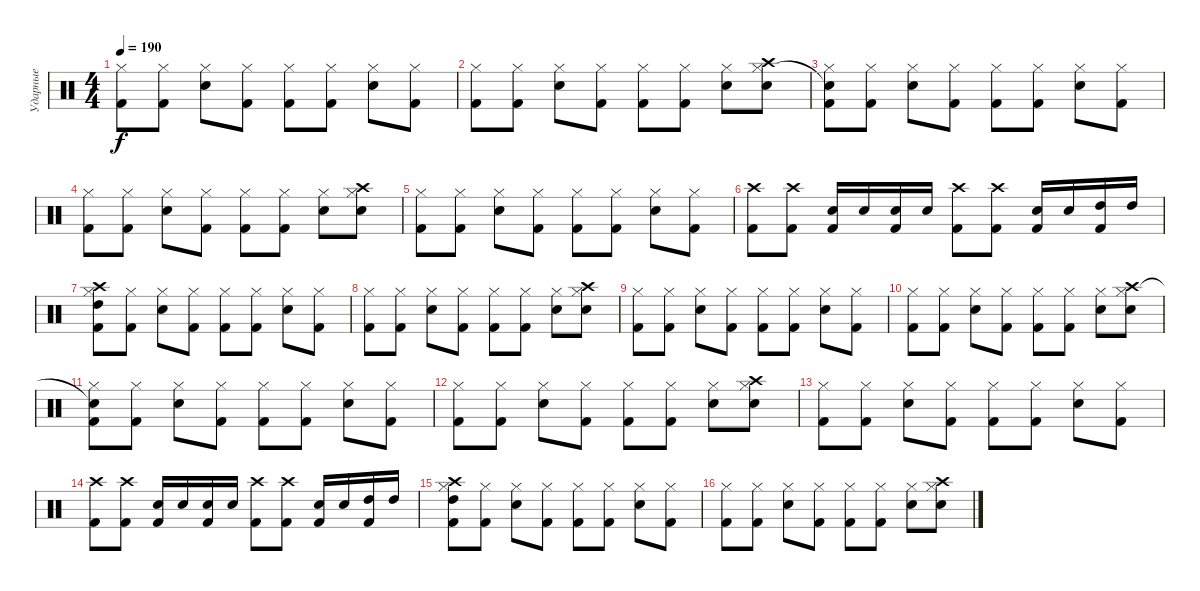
\track ("Ударные" "Ударные") {instrument percussion}
\staff {score}
\articulation defaults
\ts (4 4)
\tempo 190
\clef neutral
\ks c
("Hi-Hat (closed)" "Kick (hit) 2").8{dy f} ("Hi-Hat (closed)" "Kick (hit) 2").8 ("Hi-Hat (closed)" "Electric Snare (hit)").8 ("Hi-Hat (closed)" "Kick (hit) 2").8 ("Hi-Hat (closed)" "Kick (hit) 2").8 ("Hi-Hat (closed)" "Kick (hit) 2").8 ("Hi-Hat (closed)" "Electric Snare (hit)").8 ("Hi-Hat (closed)" "Kick (hit) 2").8 |
("Hi-Hat (closed)" "Kick (hit) 2").8 ("Hi-Hat (closed)" "Kick (hit) 2").8 ("Hi-Hat (closed)" "Electric Snare (hit)").8 ("Hi-Hat (closed)" "Kick (hit) 2").8 ("Hi-Hat (closed)" "Kick (hit) 2").8 ("Hi-Hat (closed)" "Kick (hit) 2").8 ("Hi-Hat (closed)" "Electric Snare (hit)").8 ("Hi-Hat (closed)" "Crash high (hit)" "Electric Snare (hit)").8 |
("Snare (hit)"{t} "Hi-Hat (closed)" "Kick (hit) 2").8 ("Hi-Hat (closed)" "Kick (hit) 2").8 ("Hi-Hat (closed)" "Electric Snare (hit)").8 ("Hi-Hat (closed)" "Kick (hit) 2").8 ("Hi-Hat (closed)" "Kick (hit) 2").8 ("Hi-Hat (closed)" "Kick (hit) 2").8 ("Hi-Hat (closed)" "Electric Snare (hit)").8 ("Hi-Hat (closed)" "Kick (hit) 2").8 |
("Hi-Hat (closed)" "Kick (hit) 2").8 ("Hi-Hat (closed)" "Kick (hit) 2").8 ("Hi-Hat (closed)" "Electric Snare (hit)").8 ("Hi-Hat (closed)" "Kick (hit) 2").8 ("Hi-Hat (closed)" "Kick (hit) 2").8 ("Hi-Hat (closed)" "Kick (hit) 2").8 ("Hi-Hat (closed)" "Electric Snare (hit)").8 ("Hi-Hat (closed)" "Crash high (hit)" "Electric Snare (hit)").8 |
("Hi-Hat (closed)" "Kick (hit) 2").8 ("Hi-Hat (closed)" "Kick (hit) 2").8 ("Hi-Hat (closed)" "Electric Snare (hit)").8 ("Hi-Hat (closed)" "Kick (hit) 2").8 ("Hi-Hat (closed)" "Kick (hit) 2").8 ("Hi-Hat (closed)" "Kick (hit) 2").8 ("Hi-Hat (closed)" "Electric Snare (hit)").8 ("Hi-Hat (closed)" "Kick (hit) 2").8 |
("Crash high (hit)" "Kick (hit) 2").8 ("Crash high (hit)" "Kick (hit) 2").8 ("Electric Snare (hit)" "Kick (hit) 2").16 "Electric Snare (hit)".16 ("Electric Snare (hit)" "Kick (hit) 2").16 "Electric Snare (hit)".16 ("Crash high (hit)" "Kick (hit) 2").8 ("Crash high (hit)" "Kick (hit) 2").8 ("Electric Snare (hit)" "Kick (hit) 2").16 "Electric Snare (hit)".16 ("High Tom (hit)" "Kick (hit) 2").16 "High Tom (hit)".16 |
("High Tom (hit)" "Hi-Hat (closed)" "Crash high (hit)" "Kick (hit) 2").8 ("Hi-Hat (closed)" "Kick (hit) 2").8 ("Hi-Hat (closed)" "Electric Snare (hit)").8 ("Hi-Hat (closed)" "Kick (hit) 2").8 ("Hi-Hat (closed)" "Kick (hit) 2").8 ("Hi-Hat (closed)" "Kick (hit) 2").8 ("Hi-Hat (closed)" "Electric Snare (hit)").8 ("Hi-Hat (closed)" "Kick (hit) 2").8 |
("Hi-Hat (closed)" "Kick (hit) 2").8 ("Hi-Hat (closed)" "Kick (hit) 2").8 ("Hi-Hat (closed)" "Electric Snare (hit)").8 ("Hi-Hat (closed)" "Kick (hit) 2").8 ("Hi-Hat (closed)" "Kick (hit) 2").8 ("Hi-Hat (closed)" "Kick (hit) 2").8 ("Hi-Hat (closed)" "Electric Snare (hit)").8 ("Hi-Hat (closed)" "Crash high (hit)" "Electric Snare (hit)").8 |
("Hi-Hat (closed)" "Kick (hit) 2").8 ("Hi-Hat (closed)" "Kick (hit) 2").8 ("Hi-Hat (closed)" "Electric Snare (hit)").8 ("Hi-Hat (closed)" "Kick (hit) 2").8 ("Hi-Hat (closed)" "Kick (hit) 2").8 ("Hi-Hat (closed)" "Kick (hit) 2").8 ("Hi-Hat (closed)" "Electric Snare (hit)").8 ("Hi-Hat (closed)" "Kick (hit) 2").8 |
("Hi-Hat (closed)" "Kick (hit) 2").8 ("Hi-Hat (closed)" "Kick (hit) 2").8 ("Hi-Hat (closed)" "Electric Snare (hit)").8 ("Hi-Hat (closed)" "Kick (hit) 2").8 ("Hi-Hat (closed)" "Kick (hit) 2").8 ("Hi-Hat (closed)" "Kick (hit) 2").8 ("Hi-Hat (closed)" "Electric Snare (hit)").8 ("Hi-Hat (closed)" "Crash high (hit)" "Electric Snare (hit)").8 |
("Snare (hit)"{t} "Hi-Hat (closed)" "Kick (hit) 2").8 ("Hi-Hat (closed)" "Kick (hit) 2").8 ("Hi-Hat (closed)" "Electric Snare (hit)").8 ("Hi-Hat (closed)" "Kick (hit) 2").8 ("Hi-Hat (closed)" "Kick (hit) 2").8 ("Hi-Hat (closed)" "Kick (hit) 2").8 ("Hi-Hat (closed)" "Electric Snare (hit)").8 ("Hi-Hat (closed)" "Kick (hit) 2").8 |
("Hi-Hat (closed)" "Kick (hit) 2").8 ("Hi-Hat (closed)" "Kick (hit) 2").8 ("Hi-Hat (closed)" "Electric Snare (hit)").8 ("Hi-Hat (closed)" "Kick (hit) 2").8 ("Hi-Hat (closed)" "Kick (hit) 2").8 ("Hi-Hat (closed)" "Kick (hit) 2").8 ("Hi-Hat (closed)" "Electric Snare (hit)").8 ("Hi-Hat (closed)" "Crash high (hit)" "Electric Snare (hit)").8 |
("Hi-Hat (closed)" "Kick (hit) 2").8 ("Hi-Hat (closed)" "Kick (hit) 2").8 ("Hi-Hat (closed)" "Electric Snare (hit)").8 ("Hi-Hat (closed)" "Kick (hit) 2").8 ("Hi-Hat (closed)" "Kick (hit) 2").8 ("Hi-Hat (closed)" "Kick (hit) 2").8 ("Hi-Hat (closed)" "Electric Snare (hit)").8 ("Hi-Hat (closed)" "Kick (hit) 2").8 |
("Crash high (hit)" "Kick (hit) 2").8 ("Crash high (hit)" "Kick (hit) 2").8 ("Electric Snare (hit)" "Kick (hit) 2").16 "Electric Snare (hit)".16 ("Electric Snare (hit)" "Kick (hit) 2").16 "Electric Snare (hit)".16 ("Crash high (hit)" "Kick (hit) 2").8 ("Crash high (hit)" "Kick (hit) 2").8 ("Electric Snare (hit)" "Kick (hit) 2").16 "Electric Snare (hit)".16 ("High Tom (hit)" "Kick (hit) 2").16 "High Tom (hit)".16 |
("High Tom (hit)" "Hi-Hat (closed)" "Crash high (hit)" "Kick (hit) 2").8 ("Hi-Hat (closed)" "Kick (hit) 2").8 ("Hi-Hat (closed)" "Electric Snare (hit)").8 ("Hi-Hat (closed)" "Kick (hit) 2").8 ("Hi-Hat (closed)" "Kick (hit) 2").8 ("Hi-Hat (closed)" "Kick (hit) 2").8 ("Hi-Hat (closed)" "Electric Snare (hit)").8 ("Hi-Hat (closed)" "Kick (hit) 2").8 |
("Hi-Hat (closed)" "Kick (hit) 2").8 ("Hi-Hat (closed)" "Kick (hit) 2").8 ("Hi-Hat (closed)" "Electric Snare (hit)").8 ("Hi-Hat (closed)" "Kick (hit) 2").8 ("Hi-Hat (closed)" "Kick (hit) 2").8 ("Hi-Hat (closed)" "Kick (hit) 2").8 ("Hi-Hat (closed)" "Electric Snare (hit)").8 ("Hi-Hat (closed)" "Crash high (hit)" "Electric Snare (hit)").8
